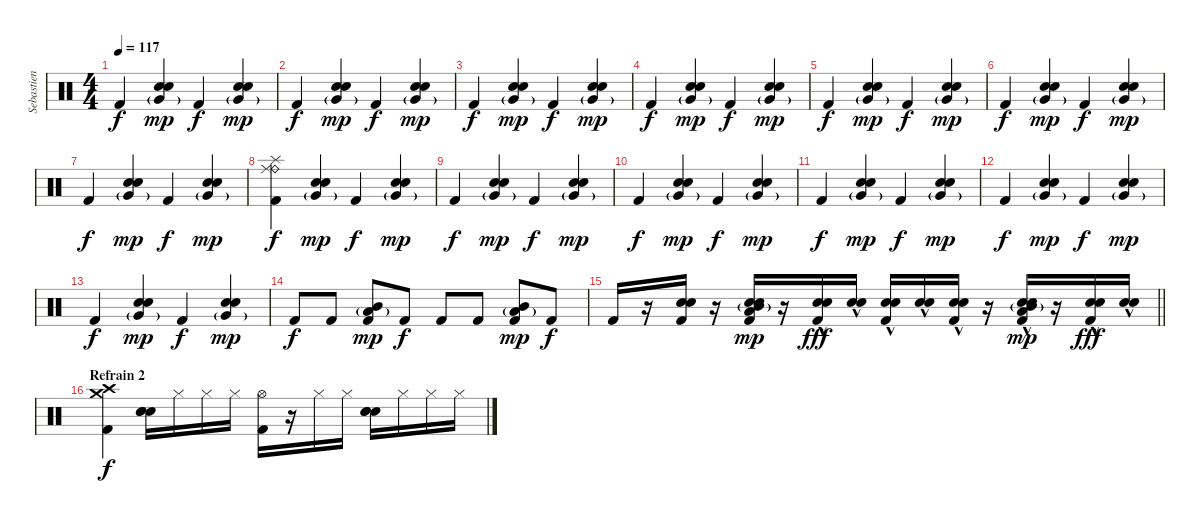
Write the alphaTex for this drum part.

\track ("Sebastien Grainger Drums" "Sebastien ") {instrument percussion}
\staff {score}
\articulation defaults
\ts (4 4)
\tempo 117
\clef neutral
\ks c "Kick (hit) 2".4{dy f}
("Very Low Tom (hit)"{g} "Electric Snare (hit)" "Snare (hit) 2").4{dy mp} "Kick (hit) 2".4{dy f} ("Very Low Tom (hit)"{g} "Electric Snare (hit)" "Snare (hit) 2").4{dy mp} |
"Kick (hit) 2".4{dy f} ("Very Low Tom (hit)"{g} "Electric Snare (hit)" "Snare (hit) 2").4{dy mp} "Kick (hit) 2".4{dy f} ("Very Low Tom (hit)"{g} "Electric Snare (hit)" "Snare (hit) 2").4{dy mp} |
"Kick (hit) 2".4{dy f} ("Very Low Tom (hit)"{g} "Electric Snare (hit)" "Snare (hit) 2").4{dy mp} "Kick (hit) 2".4{dy f} ("Very Low Tom (hit)"{g} "Electric Snare (hit)" "Snare (hit) 2").4{dy mp} |
"Kick (hit) 2".4{dy f} ("Very Low Tom (hit)"{g} "Electric Snare (hit)" "Snare (hit) 2").4{dy mp} "Kick (hit) 2".4{dy f} ("Very Low Tom (hit)"{g} "Electric Snare (hit)" "Snare (hit) 2").4{dy mp} |
"Kick (hit) 2".4{dy f} ("Very Low Tom (hit)"{g} "Electric Snare (hit)" "Snare (hit) 2").4{dy mp} "Kick (hit) 2".4{dy f} ("Very Low Tom (hit)"{g} "Electric Snare (hit)" "Snare (hit) 2").4{dy mp} |
"Kick (hit) 2".4{dy f} ("Very Low Tom (hit)"{g} "Electric Snare (hit)" "Snare (hit) 2").4{dy mp} "Kick (hit) 2".4{dy f} ("Very Low Tom (hit)"{g} "Electric Snare (hit)" "Snare (hit) 2").4{dy mp} |
"Kick (hit) 2".4{dy f} ("Very Low Tom (hit)"{g} "Electric Snare (hit)" "Snare (hit) 2").4{dy mp} "Kick (hit) 2".4{dy f} ("Very Low Tom (hit)"{g} "Electric Snare (hit)" "Snare (hit) 2").4{dy mp} |
("Splash (hit)" "Ride (bell)" "Ride (middle)" "Kick (hit) 2").4{dy f} ("Very Low Tom (hit)"{g} "Electric Snare (hit)" "Snare (hit) 2").4{dy mp} "Kick (hit) 2".4{dy f} ("Very Low Tom (hit)"{g} "Electric Snare (hit)" "Snare (hit) 2").4{dy mp} |
"Kick (hit) 2".4{dy f} ("Very Low Tom (hit)"{g} "Electric Snare (hit)" "Snare (hit) 2").4{dy mp} "Kick (hit) 2".4{dy f} ("Very Low Tom (hit)"{g} "Electric Snare (hit)" "Snare (hit) 2").4{dy mp} |
"Kick (hit) 2".4{dy f} ("Very Low Tom (hit)"{g} "Electric Snare (hit)" "Snare (hit) 2").4{dy mp} "Kick (hit) 2".4{dy f} ("Very Low Tom (hit)"{g} "Electric Snare (hit)" "Snare (hit) 2").4{dy mp} |
"Kick (hit) 2".4{dy f} ("Very Low Tom (hit)"{g} "Electric Snare (hit)" "Snare (hit) 2").4{dy mp} "Kick (hit) 2".4{dy f} ("Very Low Tom (hit)"{g} "Electric Snare (hit)" "Snare (hit) 2").4{dy mp} |
"Kick (hit) 2".4{dy f} ("Very Low Tom (hit)"{g} "Electric Snare (hit)" "Snare (hit) 2").4{dy mp} "Kick (hit) 2".4{dy f} ("Very Low Tom (hit)"{g} "Electric Snare (hit)" "Snare (hit) 2").4{dy mp} |
"Kick (hit) 2".4{dy f} ("Very Low Tom (hit)"{g} "Electric Snare (hit)" "Snare (hit) 2").4{dy mp} "Kick (hit) 2".4{dy f} ("Very Low Tom (hit)"{g} "Electric Snare (hit)" "Snare (hit) 2").4{dy mp} |
"Kick (hit) 2".8{dy f} "Kick (hit) 2".8 ("Low Tom (hit)"{g} "Mid Tom (hit)" "Kick (hit) 2").8{dy mp} "Kick (hit) 2".8{dy f} "Kick (hit) 2".8 "Kick (hit) 2".8 ("Low Tom (hit)"{g} "Mid Tom (hit)" "Kick (hit) 2").8{dy mp} "Kick (hit) 2".8{dy f} |
\barLineRight lightlight "Kick (hit) 2".16
r.16 ("Electric Snare (hit)" "Snare (hit) 2" "Kick (hit) 2").16 r.16 ("Electric Snare (hit)" "Snare (hit) 2" "Mid Tom (hit)"{g} "Low Tom (hit)" "Kick (hit) 2").16{dy mp} r.16 ("Electric Snare (hit)" "Snare (hit) 2"{hac} "Kick (hit) 2").16{dy fff} ("Electric Snare (hit)" "Snare (hit) 2"{hac}).16 ("Electric Snare (hit)" "Snare (hit) 2"{hac} "Kick (hit) 2").16 ("Electric Snare (hit)" "Snare (hit) 2"{hac}).16 ("Electric Snare (hit)" "Snare (hit) 2"{hac} "Kick (hit) 2").16 r.16 ("Electric Snare (hit)" "Snare (hit) 2"{hac} "Low Tom (hit)" "Mid Tom (hit)"{g} "Kick (hit) 2").16{dy mp} r.16 ("Electric Snare (hit)" "Snare (hit) 2"{hac} "Kick (hit) 2").16{dy fff} ("Electric Snare (hit)" "Snare (hit) 2"{hac}).16 |
\section ("" "Refrain 2")
("Crash medium (hit)" "Crash high (hit)" "Kick (hit) 2").4{dy f} ("Hand Clap (hit)" "Snare (hit) 2" "Electric Snare (hit)").16 "Hi-Hat (closed)".16 "Hi-Hat (closed)".16 "Hi-Hat (closed)".16 ("Hi-Hat (open)" "Kick (hit) 2").16 r.16 "Hi-Hat (closed)".16 "Hi-Hat (closed)".16 ("Hand Clap (hit)" "Electric Snare (hit)" "Snare (hit) 2").16 "Hi-Hat (closed)".16 "Hi-Hat (closed)".16 "Hi-Hat (closed)".16
